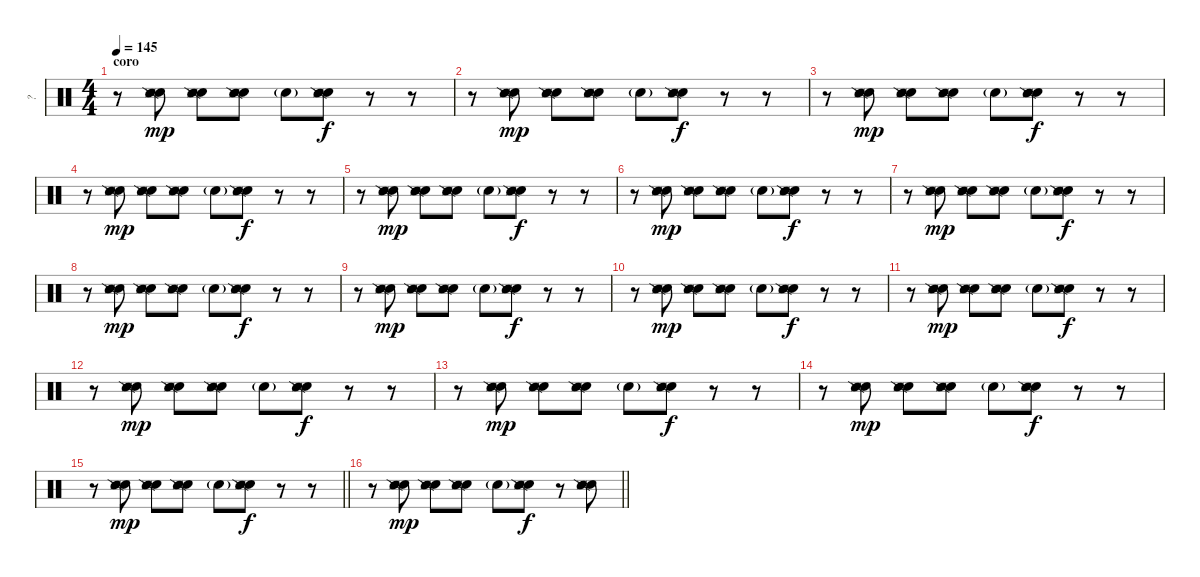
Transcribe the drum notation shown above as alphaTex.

\track ("?" "?") {instrument percussion}
\staff {score}
\articulation defaults
\ts (4 4)
\section ("" "coro")
\tempo 145
\clef neutral
\ks c
r.8{dy ppp} ("Snare (hit) 2" "Snare (side stick) 3" "Snare (side stick) 2").8{dy mp} ("Snare (hit) 2" "Snare (side stick) 3" "Snare (side stick) 2").8 ("Snare (hit) 2" "Snare (side stick) 3" "Snare (side stick) 2").8 "Snare (hit) 2"{g}.8 ("Snare (hit) 2" "Snare (side stick) 3" "Snare (side stick) 2").8{dy f} r.8 r.8 |
r.8 ("Snare (hit) 2" "Snare (side stick) 3" "Snare (side stick) 2").8{dy mp} ("Snare (hit) 2" "Snare (side stick) 3" "Snare (side stick) 2").8 ("Snare (hit) 2" "Snare (side stick) 3" "Snare (side stick) 2").8 "Snare (hit) 2"{g}.8 ("Snare (hit) 2" "Snare (side stick) 3" "Snare (side stick) 2").8{dy f} r.8 r.8 |
r.8 ("Snare (hit) 2" "Snare (side stick) 3" "Snare (side stick) 2").8{dy mp} ("Snare (hit) 2" "Snare (side stick) 3" "Snare (side stick) 2").8 ("Snare (hit) 2" "Snare (side stick) 3" "Snare (side stick) 2").8 "Snare (hit) 2"{g}.8 ("Snare (hit) 2" "Snare (side stick) 3" "Snare (side stick) 2").8{dy f} r.8 r.8 |
r.8 ("Snare (hit) 2" "Snare (side stick) 3" "Snare (side stick) 2").8{dy mp} ("Snare (hit) 2" "Snare (side stick) 3" "Snare (side stick) 2").8 ("Snare (hit) 2" "Snare (side stick) 3" "Snare (side stick) 2").8 "Snare (hit) 2"{g}.8 ("Snare (hit) 2" "Snare (side stick) 3" "Snare (side stick) 2").8{dy f} r.8 r.8 |
r.8 ("Snare (hit) 2" "Snare (side stick) 3" "Snare (side stick) 2").8{dy mp} ("Snare (hit) 2" "Snare (side stick) 3" "Snare (side stick) 2").8 ("Snare (hit) 2" "Snare (side stick) 3" "Snare (side stick) 2").8 "Snare (hit) 2"{g}.8 ("Snare (hit) 2" "Snare (side stick) 3" "Snare (side stick) 2").8{dy f} r.8 r.8 |
r.8 ("Snare (hit) 2" "Snare (side stick) 3" "Snare (side stick) 2").8{dy mp} ("Snare (hit) 2" "Snare (side stick) 3" "Snare (side stick) 2").8 ("Snare (hit) 2" "Snare (side stick) 3" "Snare (side stick) 2").8 "Snare (hit) 2"{g}.8 ("Snare (hit) 2" "Snare (side stick) 3" "Snare (side stick) 2").8{dy f} r.8 r.8 |
r.8 ("Snare (hit) 2" "Snare (side stick) 3" "Snare (side stick) 2").8{dy mp} ("Snare (hit) 2" "Snare (side stick) 3" "Snare (side stick) 2").8 ("Snare (hit) 2" "Snare (side stick) 3" "Snare (side stick) 2").8 "Snare (hit) 2"{g}.8 ("Snare (hit) 2" "Snare (side stick) 3" "Snare (side stick) 2").8{dy f} r.8 r.8 |
r.8 ("Snare (hit) 2" "Snare (side stick) 3" "Snare (side stick) 2").8{dy mp} ("Snare (hit) 2" "Snare (side stick) 3" "Snare (side stick) 2").8 ("Snare (hit) 2" "Snare (side stick) 3" "Snare (side stick) 2").8 "Snare (hit) 2"{g}.8 ("Snare (hit) 2" "Snare (side stick) 3" "Snare (side stick) 2").8{dy f} r.8 r.8 |
r.8 ("Snare (hit) 2" "Snare (side stick) 3" "Snare (side stick) 2").8{dy mp} ("Snare (hit) 2" "Snare (side stick) 3" "Snare (side stick) 2").8 ("Snare (hit) 2" "Snare (side stick) 3" "Snare (side stick) 2").8 "Snare (hit) 2"{g}.8 ("Snare (hit) 2" "Snare (side stick) 3" "Snare (side stick) 2").8{dy f} r.8 r.8 |
r.8 ("Snare (hit) 2" "Snare (side stick) 3" "Snare (side stick) 2").8{dy mp} ("Snare (hit) 2" "Snare (side stick) 3" "Snare (side stick) 2").8 ("Snare (hit) 2" "Snare (side stick) 3" "Snare (side stick) 2").8 "Snare (hit) 2"{g}.8 ("Snare (hit) 2" "Snare (side stick) 3" "Snare (side stick) 2").8{dy f} r.8 r.8 |
r.8 ("Snare (hit) 2" "Snare (side stick) 3" "Snare (side stick) 2").8{dy mp} ("Snare (hit) 2" "Snare (side stick) 3" "Snare (side stick) 2").8 ("Snare (hit) 2" "Snare (side stick) 3" "Snare (side stick) 2").8 "Snare (hit) 2"{g}.8 ("Snare (hit) 2" "Snare (side stick) 3" "Snare (side stick) 2").8{dy f} r.8 r.8 |
r.8 ("Snare (hit) 2" "Snare (side stick) 3" "Snare (side stick) 2").8{dy mp} ("Snare (hit) 2" "Snare (side stick) 3" "Snare (side stick) 2").8 ("Snare (hit) 2" "Snare (side stick) 3" "Snare (side stick) 2").8 "Snare (hit) 2"{g}.8 ("Snare (hit) 2" "Snare (side stick) 3" "Snare (side stick) 2").8{dy f} r.8 r.8 |
r.8 ("Snare (hit) 2" "Snare (side stick) 3" "Snare (side stick) 2").8{dy mp} ("Snare (hit) 2" "Snare (side stick) 3" "Snare (side stick) 2").8 ("Snare (hit) 2" "Snare (side stick) 3" "Snare (side stick) 2").8 "Snare (hit) 2"{g}.8 ("Snare (hit) 2" "Snare (side stick) 3" "Snare (side stick) 2").8{dy f} r.8 r.8 |
r.8 ("Snare (hit) 2" "Snare (side stick) 3" "Snare (side stick) 2").8{dy mp} ("Snare (hit) 2" "Snare (side stick) 3" "Snare (side stick) 2").8 ("Snare (hit) 2" "Snare (side stick) 3" "Snare (side stick) 2").8 "Snare (hit) 2"{g}.8 ("Snare (hit) 2" "Snare (side stick) 3" "Snare (side stick) 2").8{dy f} r.8 r.8 |
\barLineRight lightlight
r.8 ("Snare (hit) 2" "Snare (side stick) 3" "Snare (side stick) 2").8{dy mp} ("Snare (hit) 2" "Snare (side stick) 3" "Snare (side stick) 2").8 ("Snare (hit) 2" "Snare (side stick) 3" "Snare (side stick) 2").8 "Snare (hit) 2"{g}.8 ("Snare (hit) 2" "Snare (side stick) 3" "Snare (side stick) 2").8{dy f} r.8 r.8 |
\barLineRight lightlight
r.8 ("Snare (hit) 2" "Snare (side stick) 3" "Snare (side stick) 2").8{dy mp} ("Snare (hit) 2" "Snare (side stick) 3" "Snare (side stick) 2").8 ("Snare (hit) 2" "Snare (side stick) 3" "Snare (side stick) 2").8 "Snare (hit) 2"{g}.8 ("Snare (hit) 2" "Snare (side stick) 3" "Snare (side stick) 2").8{dy f} r.8 ("Snare (hit) 2" "Snare (side stick) 3" "Snare (side stick) 2").8
